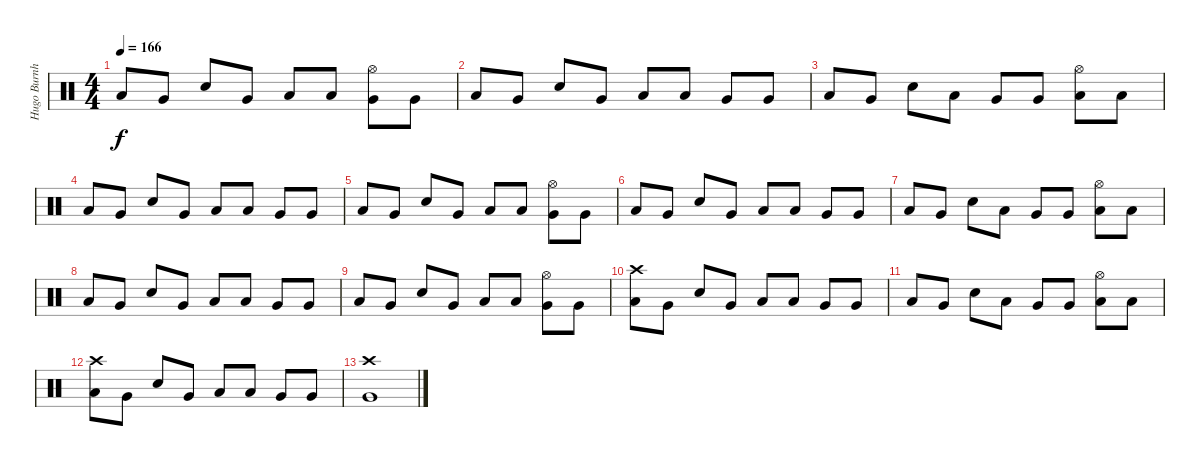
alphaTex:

\track ("Hugo Burnham" "Hugo Burnh") {instrument percussion}
\staff {score}
\articulation defaults
\ts (4 4)
\tempo 166
\clef neutral
\ks c "Low Tom (hit)".8{dy f} "Very Low Tom (hit)".8 "Electric Snare (hit)".8 "Very Low Tom (hit)".8 "Low Tom (hit)".8 "Low Tom (hit)".8
("Hi-Hat (open)" "Very Low Tom (hit)").8 "Very Low Tom (hit)".8 |
"Low Tom (hit)".8 "Very Low Tom (hit)".8 "Electric Snare (hit)".8 "Very Low Tom (hit)".8 "Low Tom (hit)".8 "Low Tom (hit)".8 "Very Low Tom (hit)".8 "Very Low Tom (hit)".8 |
"Low Tom (hit)".8 "Very Low Tom (hit)".8 "Electric Snare (hit)".8 "Low Tom (hit)".8 "Very Low Tom (hit)".8 "Very Low Tom (hit)".8 ("Hi-Hat (open)" "Low Tom (hit)").8 "Low Tom (hit)".8 |
"Low Tom (hit)".8 "Very Low Tom (hit)".8 "Electric Snare (hit)".8 "Very Low Tom (hit)".8 "Low Tom (hit)".8 "Low Tom (hit)".8 "Very Low Tom (hit)".8 "Very Low Tom (hit)".8 |
"Low Tom (hit)".8 "Very Low Tom (hit)".8 "Electric Snare (hit)".8 "Very Low Tom (hit)".8 "Low Tom (hit)".8 "Low Tom (hit)".8 ("Hi-Hat (open)" "Very Low Tom (hit)").8 "Very Low Tom (hit)".8 |
"Low Tom (hit)".8 "Very Low Tom (hit)".8 "Electric Snare (hit)".8 "Very Low Tom (hit)".8 "Low Tom (hit)".8 "Low Tom (hit)".8 "Very Low Tom (hit)".8 "Very Low Tom (hit)".8 |
"Low Tom (hit)".8 "Very Low Tom (hit)".8 "Electric Snare (hit)".8 "Low Tom (hit)".8 "Very Low Tom (hit)".8 "Very Low Tom (hit)".8 ("Hi-Hat (open)" "Low Tom (hit)").8 "Low Tom (hit)".8 |
"Low Tom (hit)".8 "Very Low Tom (hit)".8 "Electric Snare (hit)".8 "Very Low Tom (hit)".8 "Low Tom (hit)".8 "Low Tom (hit)".8 "Very Low Tom (hit)".8 "Very Low Tom (hit)".8 |
"Low Tom (hit)".8 "Very Low Tom (hit)".8 "Electric Snare (hit)".8 "Very Low Tom (hit)".8 "Low Tom (hit)".8 "Low Tom (hit)".8 ("Hi-Hat (open)" "Very Low Tom (hit)").8 "Very Low Tom (hit)".8 |
("Crash high (hit)" "Low Tom (hit)").8 "Very Low Tom (hit)".8 "Electric Snare (hit)".8 "Very Low Tom (hit)".8 "Low Tom (hit)".8 "Low Tom (hit)".8 "Very Low Tom (hit)".8 "Very Low Tom (hit)".8 |
"Low Tom (hit)".8 "Very Low Tom (hit)".8 "Electric Snare (hit)".8 "Low Tom (hit)".8 "Very Low Tom (hit)".8 "Very Low Tom (hit)".8 ("Hi-Hat (open)" "Low Tom (hit)").8 "Low Tom (hit)".8 |
("Crash high (hit)" "Low Tom (hit)").8 "Very Low Tom (hit)".8 "Electric Snare (hit)".8 "Very Low Tom (hit)".8 "Low Tom (hit)".8 "Low Tom (hit)".8 "Very Low Tom (hit)".8 "Very Low Tom (hit)".8 |
("Crash high (hit)" "Very Low Tom (hit)").1
